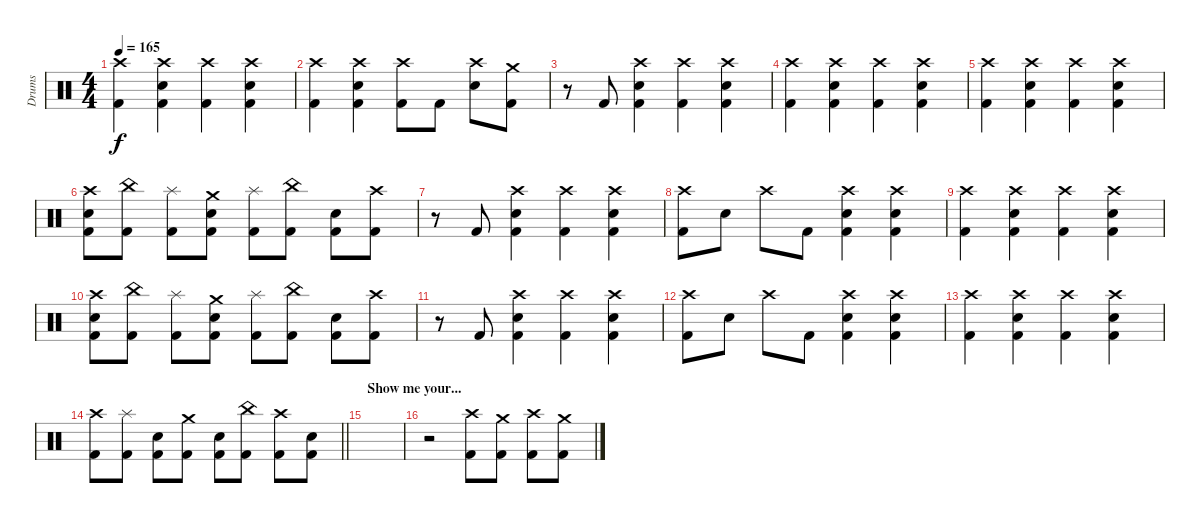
\track ("Drums" "Drums") {instrument percussion}
\staff {score}
\articulation defaults
\ts (4 4)
\tempo 165
\clef neutral
\ks c
("Crash high (hit)" "Kick (hit) 2").4{dy f} ("Crash high (hit)" "Electric Snare (hit)" "Kick (hit) 2").4 ("Crash high (hit)" "Kick (hit) 2").4 ("Crash high (hit)" "Electric Snare (hit)" "Kick (hit) 2").4 |
("Crash high (hit)" "Kick (hit) 2").4 ("Crash high (hit)" "Electric Snare (hit)" "Kick (hit) 2").4 ("Crash high (hit)" "Kick (hit) 2").8 "Kick (hit) 2".8 ("Crash high (hit)" "Electric Snare (hit)").8 ("Crash medium (hit)" "Kick (hit) 2").8 |
r.8 "Kick (hit) 2".8 ("Crash high (hit)" "Electric Snare (hit)" "Kick (hit) 2").4 ("Crash high (hit)" "Kick (hit) 2").4 ("Crash high (hit)" "Electric Snare (hit)" "Kick (hit) 2").4 |
("Crash high (hit)" "Kick (hit) 2").4 ("Crash high (hit)" "Electric Snare (hit)" "Kick (hit) 2").4 ("Crash high (hit)" "Kick (hit) 2").4 ("Crash high (hit)" "Electric Snare (hit)" "Kick (hit) 2").4 |
("Crash high (hit)" "Kick (hit) 2").4 ("Crash high (hit)" "Electric Snare (hit)" "Kick (hit) 2").4 ("Crash high (hit)" "Kick (hit) 2").4 ("Crash high (hit)" "Electric Snare (hit)" "Kick (hit) 2").4 |
("Crash high (hit)" "Electric Snare (hit)" "Kick (hit) 2").8 ("China (hit)" "Kick (hit) 2").8 ("Splash (hit)" "Kick (hit) 2").8 ("Crash medium (hit)" "Electric Snare (hit)" "Kick (hit) 2").8 ("Splash (hit)" "Kick (hit) 2").8 ("China (hit)" "Kick (hit) 2").8 ("Electric Snare (hit)" "Kick (hit) 2").8 ("Crash high (hit)" "Kick (hit) 2").8 |
r.8 "Kick (hit) 2".8 ("Crash high (hit)" "Electric Snare (hit)" "Kick (hit) 2").4 ("Crash high (hit)" "Kick (hit) 2").4 ("Crash high (hit)" "Electric Snare (hit)" "Kick (hit) 2").4 |
("Crash high (hit)" "Kick (hit) 2").8 "Electric Snare (hit)".8 "Crash high (hit)".8 "Kick (hit) 2".8 ("Crash high (hit)" "Electric Snare (hit)" "Kick (hit) 2").4 ("Crash high (hit)" "Electric Snare (hit)" "Kick (hit) 2").4 |
("Crash high (hit)" "Kick (hit) 2").4 ("Crash high (hit)" "Electric Snare (hit)" "Kick (hit) 2").4 ("Crash high (hit)" "Kick (hit) 2").4 ("Crash high (hit)" "Electric Snare (hit)" "Kick (hit) 2").4 |
("Crash high (hit)" "Electric Snare (hit)" "Kick (hit) 2").8 ("China (hit)" "Kick (hit) 2").8 ("Splash (hit)" "Kick (hit) 2").8 ("Crash medium (hit)" "Electric Snare (hit)" "Kick (hit) 2").8 ("Splash (hit)" "Kick (hit) 2").8 ("China (hit)" "Kick (hit) 2").8 ("Electric Snare (hit)" "Kick (hit) 2").8 ("Crash high (hit)" "Kick (hit) 2").8 |
r.8 "Kick (hit) 2".8 ("Crash high (hit)" "Electric Snare (hit)" "Kick (hit) 2").4 ("Crash high (hit)" "Kick (hit) 2").4 ("Crash high (hit)" "Electric Snare (hit)" "Kick (hit) 2").4 |
("Crash high (hit)" "Kick (hit) 2").8 "Electric Snare (hit)".8 "Crash high (hit)".8 "Kick (hit) 2".8 ("Crash high (hit)" "Electric Snare (hit)" "Kick (hit) 2").4 ("Crash high (hit)" "Electric Snare (hit)" "Kick (hit) 2").4 |
("Crash high (hit)" "Kick (hit) 2").4 ("Crash high (hit)" "Electric Snare (hit)" "Kick (hit) 2").4 ("Crash high (hit)" "Kick (hit) 2").4 ("Crash high (hit)" "Electric Snare (hit)" "Kick (hit) 2").4 |
\barLineRight lightlight
("Crash high (hit)" "Kick (hit) 2").8 ("Splash (hit)" "Kick (hit) 2").8 ("Electric Snare (hit)" "Kick (hit) 2").8 ("Crash medium (hit)" "Kick (hit) 2").8 ("Electric Snare (hit)" "Kick (hit) 2").8 ("China (hit)" "Kick (hit) 2").8 ("Crash high (hit)" "Kick (hit) 2").8 ("Electric Snare (hit)" "Kick (hit) 2").8 |
\section ("" "Show me your...")
|
r.2 ("Crash high (hit)" "Kick (hit) 2").8 ("Crash medium (hit)" "Kick (hit) 2").8 ("Crash high (hit)" "Kick (hit) 2").8 ("Crash medium (hit)" "Kick (hit) 2").8
